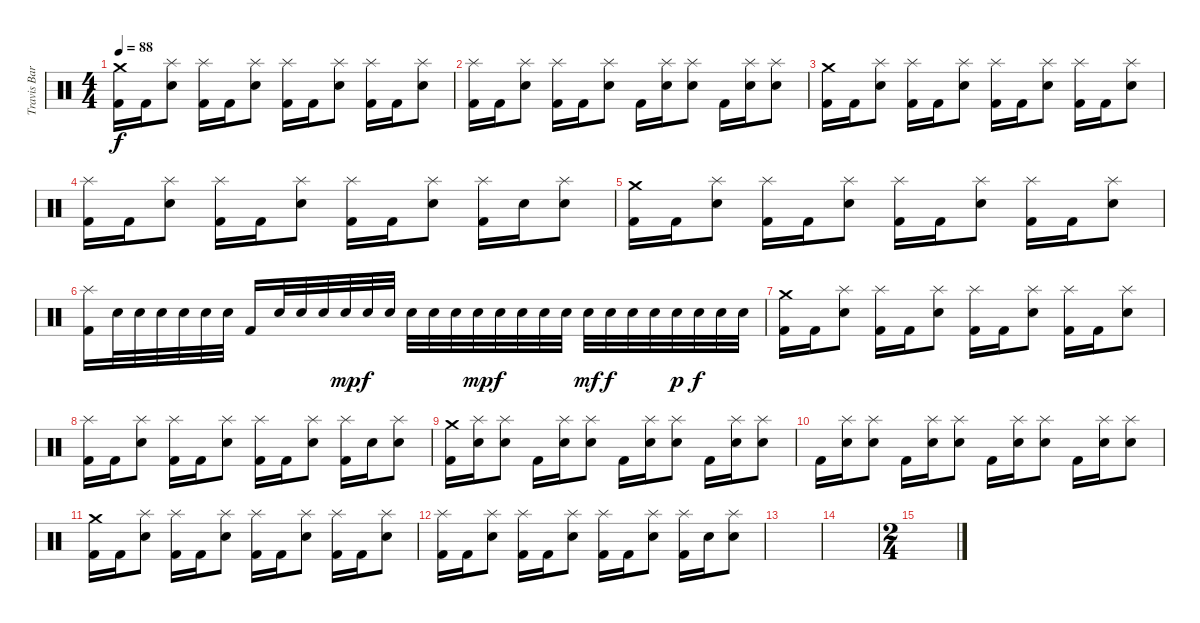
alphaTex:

\track ("Travis Barker - Drums" "Travis Bar") {instrument percussion}
\staff {score}
\articulation defaults
\ts (4 4)
\tempo 88
\clef neutral
\ks c
("Crash medium (hit)" "Kick (hit) 2").16{dy f} "Kick (hit) 2".16 ("Splash (hit)" "Electric Snare (hit)").8 ("Splash (hit)" "Kick (hit) 2").16 "Kick (hit) 2".16 ("Splash (hit)" "Electric Snare (hit)").8 ("Splash (hit)" "Kick (hit) 2").16 "Kick (hit) 2".16 ("Splash (hit)" "Electric Snare (hit)").8 ("Splash (hit)" "Kick (hit) 2").16 "Kick (hit) 2".16 ("Splash (hit)" "Electric Snare (hit)").8 |
("Splash (hit)" "Kick (hit) 2").16 "Kick (hit) 2".16 ("Splash (hit)" "Electric Snare (hit)").8 ("Splash (hit)" "Kick (hit) 2").16 "Kick (hit) 2".16 ("Splash (hit)" "Electric Snare (hit)").8 "Kick (hit) 2".16 ("Splash (hit)" "Electric Snare (hit)").16 ("Splash (hit)" "Electric Snare (hit)").8 "Kick (hit) 2".16 ("Splash (hit)" "Electric Snare (hit)").16 ("Splash (hit)" "Electric Snare (hit)").8 |
("Crash medium (hit)" "Kick (hit) 2").16 "Kick (hit) 2".16 ("Splash (hit)" "Electric Snare (hit)").8 ("Splash (hit)" "Kick (hit) 2").16 "Kick (hit) 2".16 ("Splash (hit)" "Electric Snare (hit)").8 ("Splash (hit)" "Kick (hit) 2").16 "Kick (hit) 2".16 ("Splash (hit)" "Electric Snare (hit)").8 ("Splash (hit)" "Kick (hit) 2").16 "Kick (hit) 2".16 ("Splash (hit)" "Electric Snare (hit)").8 |
("Splash (hit)" "Kick (hit) 2").16 "Kick (hit) 2".16 ("Splash (hit)" "Electric Snare (hit)").8 ("Splash (hit)" "Kick (hit) 2").16 "Kick (hit) 2".16 ("Splash (hit)" "Electric Snare (hit)").8 ("Splash (hit)" "Kick (hit) 2").16 "Kick (hit) 2".16 ("Splash (hit)" "Electric Snare (hit)").8 ("Splash (hit)" "Kick (hit) 2").16 "Electric Snare (hit)".16 ("Splash (hit)" "Electric Snare (hit)").8 |
("Crash medium (hit)" "Kick (hit) 2").16 "Kick (hit) 2".16 ("Splash (hit)" "Electric Snare (hit)").8 ("Splash (hit)" "Kick (hit) 2").16 "Kick (hit) 2".16 ("Splash (hit)" "Electric Snare (hit)").8 ("Splash (hit)" "Kick (hit) 2").16 "Kick (hit) 2".16 ("Splash (hit)" "Electric Snare (hit)").8 ("Splash (hit)" "Kick (hit) 2").16 "Kick (hit) 2".16 ("Splash (hit)" "Electric Snare (hit)").8 |
("Splash (hit)" "Kick (hit) 2").16 "Electric Snare (hit)".32 "Electric Snare (hit)".32 "Electric Snare (hit)".32 "Electric Snare (hit)".32 "Electric Snare (hit)".32 "Electric Snare (hit)".32 "Kick (hit) 2".16 "Electric Snare (hit)".32 "Electric Snare (hit)".32 "Electric Snare (hit)".32 "Electric Snare (hit)".32{dy mp} "Electric Snare (hit)".32{dy f} "Electric Snare (hit)".32 "Electric Snare (hit)".32 "Electric Snare (hit)".32 "Electric Snare (hit)".32 "Electric Snare (hit)".32{dy mp} "Electric Snare (hit)".32{dy f} "Electric Snare (hit)".32 "Electric Snare (hit)".32 "Electric Snare (hit)".32 "Electric Snare (hit)".32{dy mf} "Electric Snare (hit)".32{dy f} "Electric Snare (hit)".32 "Electric Snare (hit)".32 "Electric Snare (hit)".32{dy p} "Electric Snare (hit)".32{dy f} "Electric Snare (hit)".32 "Electric Snare (hit)".32 |
("Crash medium (hit)" "Kick (hit) 2").16 "Kick (hit) 2".16 ("Splash (hit)" "Electric Snare (hit)").8 ("Splash (hit)" "Kick (hit) 2").16 "Kick (hit) 2".16 ("Splash (hit)" "Electric Snare (hit)").8 ("Splash (hit)" "Kick (hit) 2").16 "Kick (hit) 2".16 ("Splash (hit)" "Electric Snare (hit)").8 ("Splash (hit)" "Kick (hit) 2").16 "Kick (hit) 2".16 ("Splash (hit)" "Electric Snare (hit)").8 |
("Splash (hit)" "Kick (hit) 2").16 "Kick (hit) 2".16 ("Splash (hit)" "Electric Snare (hit)").8 ("Splash (hit)" "Kick (hit) 2").16 "Kick (hit) 2".16 ("Splash (hit)" "Electric Snare (hit)").8 ("Splash (hit)" "Kick (hit) 2").16 "Kick (hit) 2".16 ("Splash (hit)" "Electric Snare (hit)").8 ("Splash (hit)" "Kick (hit) 2").16 "Electric Snare (hit)".16 ("Splash (hit)" "Electric Snare (hit)").8 |
("Crash medium (hit)" "Kick (hit) 2").16 ("Splash (hit)" "Electric Snare (hit)").16 ("Splash (hit)" "Electric Snare (hit)").8 "Kick (hit) 2".16 ("Splash (hit)" "Electric Snare (hit)").16 ("Splash (hit)" "Electric Snare (hit)").8 "Kick (hit) 2".16 ("Splash (hit)" "Electric Snare (hit)").16 ("Splash (hit)" "Electric Snare (hit)").8 "Kick (hit) 2".16 ("Splash (hit)" "Electric Snare (hit)").16 ("Splash (hit)" "Electric Snare (hit)").8 |
"Kick (hit) 2".16 ("Splash (hit)" "Electric Snare (hit)").16 ("Splash (hit)" "Electric Snare (hit)").8 "Kick (hit) 2".16 ("Splash (hit)" "Electric Snare (hit)").16 ("Splash (hit)" "Electric Snare (hit)").8 "Kick (hit) 2".16 ("Splash (hit)" "Electric Snare (hit)").16 ("Splash (hit)" "Electric Snare (hit)").8 "Kick (hit) 2".16 ("Splash (hit)" "Electric Snare (hit)").16 ("Splash (hit)" "Electric Snare (hit)").8 |
("Crash medium (hit)" "Kick (hit) 2").16{volume 0} "Kick (hit) 2".16 ("Splash (hit)" "Electric Snare (hit)").8 ("Splash (hit)" "Kick (hit) 2").16 "Kick (hit) 2".16 ("Splash (hit)" "Electric Snare (hit)").8 ("Splash (hit)" "Kick (hit) 2").16 "Kick (hit) 2".16 ("Splash (hit)" "Electric Snare (hit)").8 ("Splash (hit)" "Kick (hit) 2").16 "Kick (hit) 2".16 ("Splash (hit)" "Electric Snare (hit)").8 |
("Splash (hit)" "Kick (hit) 2").16 "Kick (hit) 2".16 ("Splash (hit)" "Electric Snare (hit)").8 ("Splash (hit)" "Kick (hit) 2").16 "Kick (hit) 2".16 ("Splash (hit)" "Electric Snare (hit)").8 ("Splash (hit)" "Kick (hit) 2").16 "Kick (hit) 2".16 ("Splash (hit)" "Electric Snare (hit)").8 ("Splash (hit)" "Kick (hit) 2").16 "Electric Snare (hit)".16 ("Splash (hit)" "Electric Snare (hit)").8 |
|
|
\ts (2 4)
